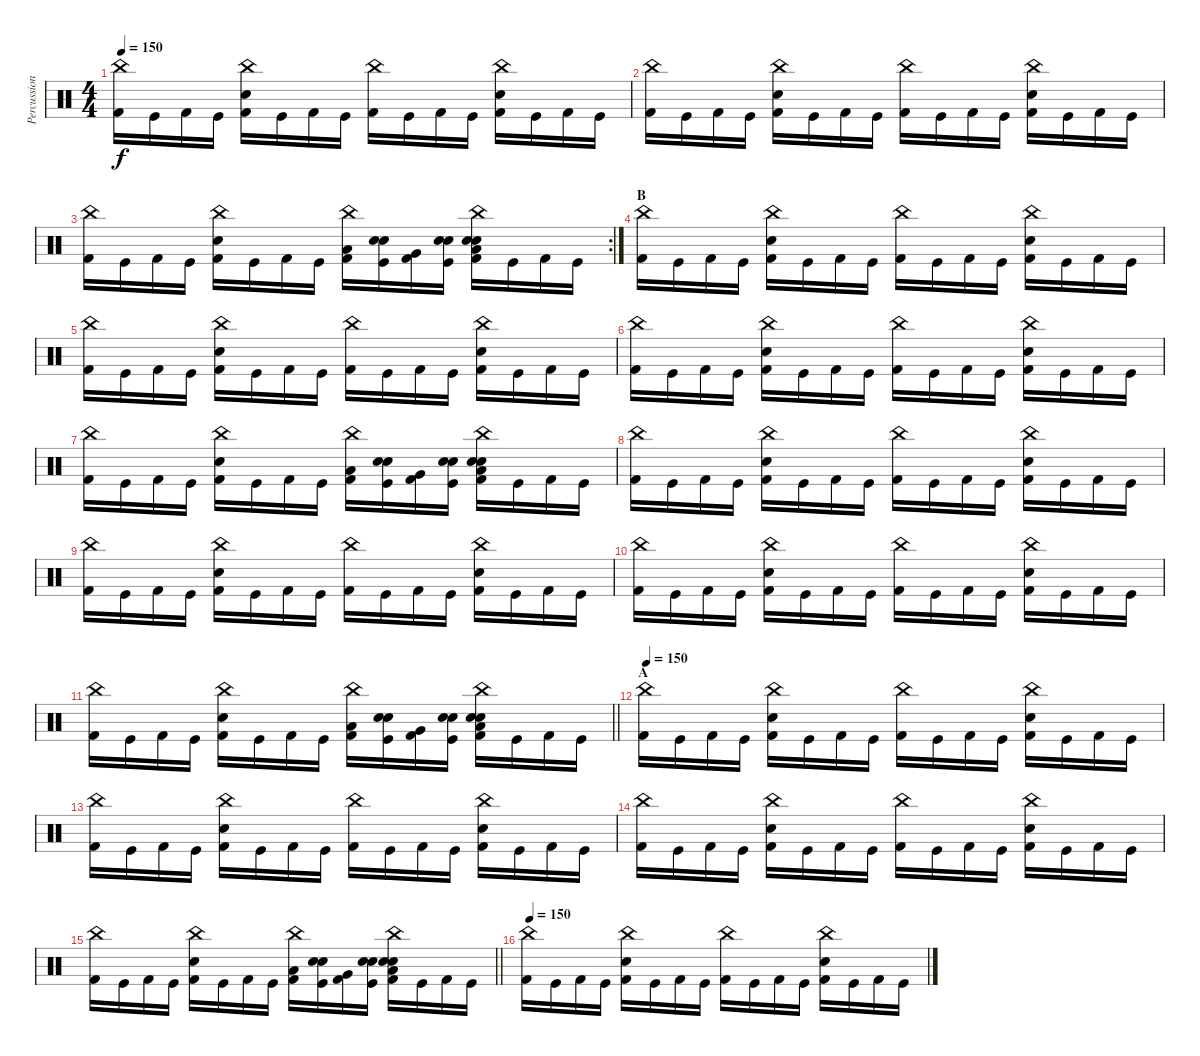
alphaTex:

\track ("Percussion" "Percussion") {instrument percussion}
\staff {score}
\articulation defaults
\ts (4 4)
\tempo 150
\clef neutral
\ks c
("China (hit)" "Kick (hit) 2").16{dy f} "Kick (hit)".16 "Kick (hit) 2".16 "Kick (hit)".16 ("China (hit)" "Snare (hit) 2" "Kick (hit) 2").16 "Kick (hit)".16 "Kick (hit) 2".16 "Kick (hit)".16 ("China (hit)" "Kick (hit) 2").16 "Kick (hit)".16 "Kick (hit) 2".16 "Kick (hit)".16 ("China (hit)" "Snare (hit) 2" "Kick (hit) 2").16 "Kick (hit)".16 "Kick (hit) 2".16 "Kick (hit)".16 |
("China (hit)" "Kick (hit) 2").16 "Kick (hit)".16 "Kick (hit) 2".16 "Kick (hit)".16 ("China (hit)" "Snare (hit) 2" "Kick (hit) 2").16 "Kick (hit)".16 "Kick (hit) 2".16 "Kick (hit)".16 ("China (hit)" "Kick (hit) 2").16 "Kick (hit)".16 "Kick (hit) 2".16 "Kick (hit)".16 ("China (hit)" "Snare (hit) 2" "Kick (hit) 2").16 "Kick (hit)".16 "Kick (hit) 2".16 "Kick (hit)".16 |
\rc 2
("China (hit)" "Kick (hit) 2").16 "Kick (hit)".16 "Kick (hit) 2".16 "Kick (hit)".16 ("China (hit)" "Snare (hit) 2" "Kick (hit) 2").16 "Kick (hit)".16 "Kick (hit) 2".16 "Kick (hit)".16 ("China (hit)" "Low Tom (hit)" "Kick (hit) 2").16 ("Electric Snare (hit)" "Snare (hit) 2" "Kick (hit)").16 ("Very Low Tom (hit)" "Kick (hit) 2").16 ("Electric Snare (hit)" "Snare (hit) 2" "Kick (hit)").16 ("China (hit)" "Snare (hit) 2" "Electric Snare (hit)" "Low Floor Tom (hit)" "Kick (hit) 2").16 "Kick (hit)".16 "Kick (hit) 2".16 "Kick (hit)".16 |
\section ("" "B")
("China (hit)" "Kick (hit) 2").16 "Kick (hit)".16 "Kick (hit) 2".16 "Kick (hit)".16 ("China (hit)" "Snare (hit) 2" "Kick (hit) 2").16 "Kick (hit)".16 "Kick (hit) 2".16 "Kick (hit)".16 ("China (hit)" "Kick (hit) 2").16 "Kick (hit)".16 "Kick (hit) 2".16 "Kick (hit)".16 ("China (hit)" "Snare (hit) 2" "Kick (hit) 2").16 "Kick (hit)".16 "Kick (hit) 2".16 "Kick (hit)".16 |
("China (hit)" "Kick (hit) 2").16 "Kick (hit)".16 "Kick (hit) 2".16 "Kick (hit)".16 ("China (hit)" "Snare (hit) 2" "Kick (hit) 2").16 "Kick (hit)".16 "Kick (hit) 2".16 "Kick (hit)".16 ("China (hit)" "Kick (hit) 2").16 "Kick (hit)".16 "Kick (hit) 2".16 "Kick (hit)".16 ("China (hit)" "Snare (hit) 2" "Kick (hit) 2").16 "Kick (hit)".16 "Kick (hit) 2".16 "Kick (hit)".16 |
("China (hit)" "Kick (hit) 2").16 "Kick (hit)".16 "Kick (hit) 2".16 "Kick (hit)".16 ("China (hit)" "Snare (hit) 2" "Kick (hit) 2").16 "Kick (hit)".16 "Kick (hit) 2".16 "Kick (hit)".16 ("China (hit)" "Kick (hit) 2").16 "Kick (hit)".16 "Kick (hit) 2".16 "Kick (hit)".16 ("China (hit)" "Snare (hit) 2" "Kick (hit) 2").16 "Kick (hit)".16 "Kick (hit) 2".16 "Kick (hit)".16 |
("China (hit)" "Kick (hit) 2").16 "Kick (hit)".16 "Kick (hit) 2".16 "Kick (hit)".16 ("China (hit)" "Snare (hit) 2" "Kick (hit) 2").16 "Kick (hit)".16 "Kick (hit) 2".16 "Kick (hit)".16 ("China (hit)" "Low Tom (hit)" "Kick (hit) 2").16 ("Electric Snare (hit)" "Snare (hit) 2" "Kick (hit)").16 ("Very Low Tom (hit)" "Kick (hit) 2").16 ("Electric Snare (hit)" "Snare (hit) 2" "Kick (hit)").16 ("China (hit)" "Snare (hit) 2" "Electric Snare (hit)" "Low Floor Tom (hit)" "Kick (hit) 2").16 "Kick (hit)".16 "Kick (hit) 2".16 "Kick (hit)".16 |
("China (hit)" "Kick (hit) 2").16 "Kick (hit)".16 "Kick (hit) 2".16 "Kick (hit)".16 ("China (hit)" "Snare (hit) 2" "Kick (hit) 2").16 "Kick (hit)".16 "Kick (hit) 2".16 "Kick (hit)".16 ("China (hit)" "Kick (hit) 2").16 "Kick (hit)".16 "Kick (hit) 2".16 "Kick (hit)".16 ("China (hit)" "Snare (hit) 2" "Kick (hit) 2").16 "Kick (hit)".16 "Kick (hit) 2".16 "Kick (hit)".16 |
("China (hit)" "Kick (hit) 2").16 "Kick (hit)".16 "Kick (hit) 2".16 "Kick (hit)".16 ("China (hit)" "Snare (hit) 2" "Kick (hit) 2").16 "Kick (hit)".16 "Kick (hit) 2".16 "Kick (hit)".16 ("China (hit)" "Kick (hit) 2").16 "Kick (hit)".16 "Kick (hit) 2".16 "Kick (hit)".16 ("China (hit)" "Snare (hit) 2" "Kick (hit) 2").16 "Kick (hit)".16 "Kick (hit) 2".16 "Kick (hit)".16 |
("China (hit)" "Kick (hit) 2").16 "Kick (hit)".16 "Kick (hit) 2".16 "Kick (hit)".16 ("China (hit)" "Snare (hit) 2" "Kick (hit) 2").16 "Kick (hit)".16 "Kick (hit) 2".16 "Kick (hit)".16 ("China (hit)" "Kick (hit) 2").16 "Kick (hit)".16 "Kick (hit) 2".16 "Kick (hit)".16 ("China (hit)" "Snare (hit) 2" "Kick (hit) 2").16 "Kick (hit)".16 "Kick (hit) 2".16 "Kick (hit)".16 |
\barLineRight lightlight
("China (hit)" "Kick (hit) 2").16 "Kick (hit)".16 "Kick (hit) 2".16 "Kick (hit)".16 ("China (hit)" "Snare (hit) 2" "Kick (hit) 2").16 "Kick (hit)".16 "Kick (hit) 2".16 "Kick (hit)".16 ("China (hit)" "Low Tom (hit)" "Kick (hit) 2").16 ("Electric Snare (hit)" "Snare (hit) 2" "Kick (hit)").16 ("Very Low Tom (hit)" "Kick (hit) 2").16 ("Electric Snare (hit)" "Snare (hit) 2" "Kick (hit)").16 ("China (hit)" "Snare (hit) 2" "Electric Snare (hit)" "Low Floor Tom (hit)" "Kick (hit) 2").16 "Kick (hit)".16 "Kick (hit) 2".16 "Kick (hit)".16 |
\section ("" "A")
\tempo 150
("China (hit)" "Kick (hit) 2").16 "Kick (hit)".16 "Kick (hit) 2".16 "Kick (hit)".16 ("China (hit)" "Snare (hit) 2" "Kick (hit) 2").16 "Kick (hit)".16 "Kick (hit) 2".16 "Kick (hit)".16 ("China (hit)" "Kick (hit) 2").16 "Kick (hit)".16 "Kick (hit) 2".16 "Kick (hit)".16 ("China (hit)" "Snare (hit) 2" "Kick (hit) 2").16 "Kick (hit)".16 "Kick (hit) 2".16 "Kick (hit)".16 |
("China (hit)" "Kick (hit) 2").16 "Kick (hit)".16 "Kick (hit) 2".16 "Kick (hit)".16 ("China (hit)" "Snare (hit) 2" "Kick (hit) 2").16 "Kick (hit)".16 "Kick (hit) 2".16 "Kick (hit)".16 ("China (hit)" "Kick (hit) 2").16 "Kick (hit)".16 "Kick (hit) 2".16 "Kick (hit)".16 ("China (hit)" "Snare (hit) 2" "Kick (hit) 2").16 "Kick (hit)".16 "Kick (hit) 2".16 "Kick (hit)".16 |
("China (hit)" "Kick (hit) 2").16 "Kick (hit)".16 "Kick (hit) 2".16 "Kick (hit)".16 ("China (hit)" "Snare (hit) 2" "Kick (hit) 2").16 "Kick (hit)".16 "Kick (hit) 2".16 "Kick (hit)".16 ("China (hit)" "Kick (hit) 2").16 "Kick (hit)".16 "Kick (hit) 2".16 "Kick (hit)".16 ("China (hit)" "Snare (hit) 2" "Kick (hit) 2").16 "Kick (hit)".16 "Kick (hit) 2".16 "Kick (hit)".16 |
\barLineRight lightlight
("China (hit)" "Kick (hit) 2").16 "Kick (hit)".16 "Kick (hit) 2".16 "Kick (hit)".16 ("China (hit)" "Snare (hit) 2" "Kick (hit) 2").16 "Kick (hit)".16 "Kick (hit) 2".16 "Kick (hit)".16 ("China (hit)" "Low Tom (hit)" "Kick (hit) 2").16 ("Electric Snare (hit)" "Snare (hit) 2" "Kick (hit)").16 ("Very Low Tom (hit)" "Kick (hit) 2").16 ("Electric Snare (hit)" "Snare (hit) 2" "Kick (hit)").16 ("China (hit)" "Snare (hit) 2" "Electric Snare (hit)" "Low Floor Tom (hit)" "Kick (hit) 2").16 "Kick (hit)".16 "Kick (hit) 2".16 "Kick (hit)".16 |
\tempo 150
("China (hit)" "Kick (hit) 2").16 "Kick (hit)".16 "Kick (hit) 2".16 "Kick (hit)".16 ("China (hit)" "Snare (hit) 2" "Kick (hit) 2").16 "Kick (hit)".16 "Kick (hit) 2".16 "Kick (hit)".16 ("China (hit)" "Kick (hit) 2").16 "Kick (hit)".16 "Kick (hit) 2".16 "Kick (hit)".16 ("China (hit)" "Snare (hit) 2" "Kick (hit) 2").16 "Kick (hit)".16 "Kick (hit) 2".16 "Kick (hit)".16
